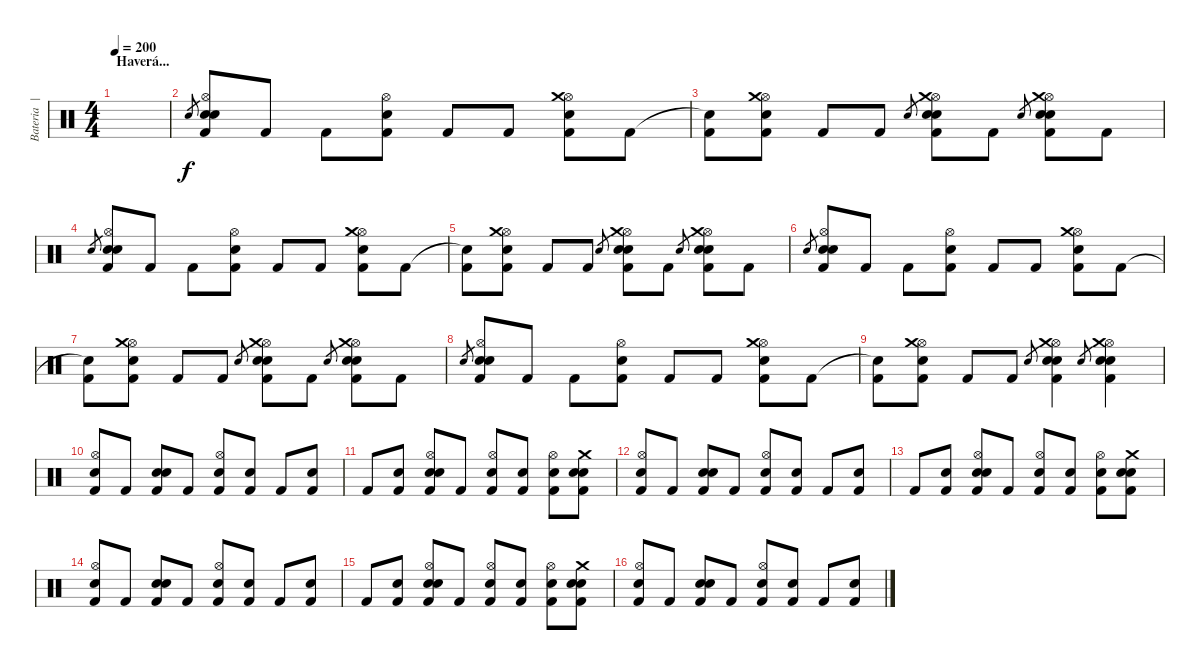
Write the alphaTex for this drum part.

\track ("Bateria  | Nô" "Bateria  |") {instrument percussion}
\staff {score}
\articulation defaults
\ts (4 4)
\section ("" "Haverá...")
\tempo 200
\clef neutral
\ks c
|
"Electric Snare (hit)".8{gr} ("Hi-Hat (open)" "Snare (hit) 2" "Electric Snare (hit)" "Kick (hit) 2").8 "Kick (hit) 2".8 "Kick (hit) 2".8 ("Hi-Hat (open)" "Snare (hit) 2" "Kick (hit) 2").8 "Kick (hit) 2".8 "Kick (hit) 2".8 ("Hi-Hat (open)" "Crash medium (hit)" "Snare (hit) 2" "Kick (hit) 2").8 "Kick (hit) 2".8 |
("Snare (hit)"{t} "Kick (hit) 2").8 ("Hi-Hat (open)" "Crash medium (hit)" "Snare (hit) 2" "Kick (hit) 2").8 "Kick (hit) 2".8 "Kick (hit) 2".8 "Electric Snare (hit)".8{gr} ("Hi-Hat (open)" "Crash medium (hit)" "Snare (hit) 2" "Electric Snare (hit)" "Kick (hit) 2").8 "Kick (hit) 2".8 "Electric Snare (hit)".8{gr} ("Hi-Hat (open)" "Crash medium (hit)" "Snare (hit) 2" "Electric Snare (hit)" "Kick (hit) 2").8 "Kick (hit) 2".8 |
"Electric Snare (hit)".8{gr} ("Hi-Hat (open)" "Snare (hit) 2" "Electric Snare (hit)" "Kick (hit) 2").8 "Kick (hit) 2".8 "Kick (hit) 2".8 ("Hi-Hat (open)" "Snare (hit) 2" "Kick (hit) 2").8 "Kick (hit) 2".8 "Kick (hit) 2".8 ("Hi-Hat (open)" "Crash medium (hit)" "Snare (hit) 2" "Kick (hit) 2").8 "Kick (hit) 2".8 |
("Snare (hit)"{t} "Kick (hit) 2").8 ("Hi-Hat (open)" "Crash medium (hit)" "Snare (hit) 2" "Kick (hit) 2").8 "Kick (hit) 2".8 "Kick (hit) 2".8 "Electric Snare (hit)".8{gr} ("Hi-Hat (open)" "Crash medium (hit)" "Snare (hit) 2" "Electric Snare (hit)" "Kick (hit) 2").8 "Kick (hit) 2".8 "Electric Snare (hit)".8{gr} ("Hi-Hat (open)" "Crash medium (hit)" "Snare (hit) 2" "Electric Snare (hit)" "Kick (hit) 2").8 "Kick (hit) 2".8 |
"Electric Snare (hit)".8{gr} ("Hi-Hat (open)" "Snare (hit) 2" "Electric Snare (hit)" "Kick (hit) 2").8 "Kick (hit) 2".8 "Kick (hit) 2".8 ("Hi-Hat (open)" "Snare (hit) 2" "Kick (hit) 2").8 "Kick (hit) 2".8 "Kick (hit) 2".8 ("Hi-Hat (open)" "Crash medium (hit)" "Snare (hit) 2" "Kick (hit) 2").8 "Kick (hit) 2".8 |
("Snare (hit)"{t} "Kick (hit) 2").8 ("Hi-Hat (open)" "Crash medium (hit)" "Snare (hit) 2" "Kick (hit) 2").8 "Kick (hit) 2".8 "Kick (hit) 2".8 "Electric Snare (hit)".8{gr} ("Hi-Hat (open)" "Crash medium (hit)" "Snare (hit) 2" "Electric Snare (hit)" "Kick (hit) 2").8 "Kick (hit) 2".8 "Electric Snare (hit)".8{gr} ("Hi-Hat (open)" "Crash medium (hit)" "Snare (hit) 2" "Electric Snare (hit)" "Kick (hit) 2").8 "Kick (hit) 2".8 |
"Electric Snare (hit)".8{gr} ("Hi-Hat (open)" "Snare (hit) 2" "Electric Snare (hit)" "Kick (hit) 2").8 "Kick (hit) 2".8 "Kick (hit) 2".8 ("Hi-Hat (open)" "Snare (hit) 2" "Kick (hit) 2").8 "Kick (hit) 2".8 "Kick (hit) 2".8 ("Hi-Hat (open)" "Crash medium (hit)" "Snare (hit) 2" "Kick (hit) 2").8 "Kick (hit) 2".8 |
("Snare (hit)"{t} "Kick (hit) 2").8 ("Hi-Hat (open)" "Crash medium (hit)" "Snare (hit) 2" "Kick (hit) 2").8 "Kick (hit) 2".8 "Kick (hit) 2".8 "Electric Snare (hit)".8{gr} ("Hi-Hat (open)" "Crash medium (hit)" "Snare (hit) 2" "Electric Snare (hit)" "Kick (hit) 2").4 "Electric Snare (hit)".8{gr} ("Hi-Hat (open)" "Crash medium (hit)" "Snare (hit) 2" "Electric Snare (hit)" "Kick (hit) 2").4 |
("Hi-Hat (open)" "Electric Snare (hit)" "Kick (hit) 2").8 "Kick (hit) 2".8 ("Snare (hit) 2" "Electric Snare (hit)" "Kick (hit) 2").8 "Kick (hit) 2".8 ("Hi-Hat (open)" "Electric Snare (hit)" "Kick (hit) 2").8 ("Electric Snare (hit)" "Kick (hit) 2").8 "Kick (hit) 2".8 ("Snare (hit) 2" "Kick (hit) 2").8 |
"Kick (hit) 2".8 ("Electric Snare (hit)" "Kick (hit) 2").8 ("Hi-Hat (open)" "Electric Snare (hit)" "Snare (hit) 2" "Kick (hit) 2").8 "Kick (hit) 2".8 ("Hi-Hat (open)" "Electric Snare (hit)" "Kick (hit) 2").8 ("Electric Snare (hit)" "Kick (hit) 2").8 ("Hi-Hat (open)" "Electric Snare (hit)" "Kick (hit) 2").8 ("Crash medium (hit)" "Snare (hit) 2" "Electric Snare (hit)" "Kick (hit) 2").8 |
("Hi-Hat (open)" "Electric Snare (hit)" "Kick (hit) 2").8 "Kick (hit) 2".8 ("Snare (hit) 2" "Electric Snare (hit)" "Kick (hit) 2").8 "Kick (hit) 2".8 ("Hi-Hat (open)" "Electric Snare (hit)" "Kick (hit) 2").8 ("Electric Snare (hit)" "Kick (hit) 2").8 "Kick (hit) 2".8 ("Snare (hit) 2" "Kick (hit) 2").8 |
"Kick (hit) 2".8 ("Electric Snare (hit)" "Kick (hit) 2").8 ("Hi-Hat (open)" "Electric Snare (hit)" "Snare (hit) 2" "Kick (hit) 2").8 "Kick (hit) 2".8 ("Hi-Hat (open)" "Electric Snare (hit)" "Kick (hit) 2").8 ("Electric Snare (hit)" "Kick (hit) 2").8 ("Hi-Hat (open)" "Electric Snare (hit)" "Kick (hit) 2").8 ("Crash medium (hit)" "Snare (hit) 2" "Electric Snare (hit)" "Kick (hit) 2").8 |
("Hi-Hat (open)" "Electric Snare (hit)" "Kick (hit) 2").8 "Kick (hit) 2".8 ("Snare (hit) 2" "Electric Snare (hit)" "Kick (hit) 2").8 "Kick (hit) 2".8 ("Hi-Hat (open)" "Electric Snare (hit)" "Kick (hit) 2").8 ("Electric Snare (hit)" "Kick (hit) 2").8 "Kick (hit) 2".8 ("Snare (hit) 2" "Kick (hit) 2").8 |
"Kick (hit) 2".8 ("Electric Snare (hit)" "Kick (hit) 2").8 ("Hi-Hat (open)" "Electric Snare (hit)" "Snare (hit) 2" "Kick (hit) 2").8 "Kick (hit) 2".8 ("Hi-Hat (open)" "Electric Snare (hit)" "Kick (hit) 2").8 ("Electric Snare (hit)" "Kick (hit) 2").8 ("Hi-Hat (open)" "Electric Snare (hit)" "Kick (hit) 2").8 ("Crash medium (hit)" "Snare (hit) 2" "Electric Snare (hit)" "Kick (hit) 2").8 |
("Hi-Hat (open)" "Electric Snare (hit)" "Kick (hit) 2").8 "Kick (hit) 2".8 ("Snare (hit) 2" "Electric Snare (hit)" "Kick (hit) 2").8 "Kick (hit) 2".8 ("Hi-Hat (open)" "Electric Snare (hit)" "Kick (hit) 2").8 ("Electric Snare (hit)" "Kick (hit) 2").8 "Kick (hit) 2".8 ("Snare (hit) 2" "Kick (hit) 2").8
